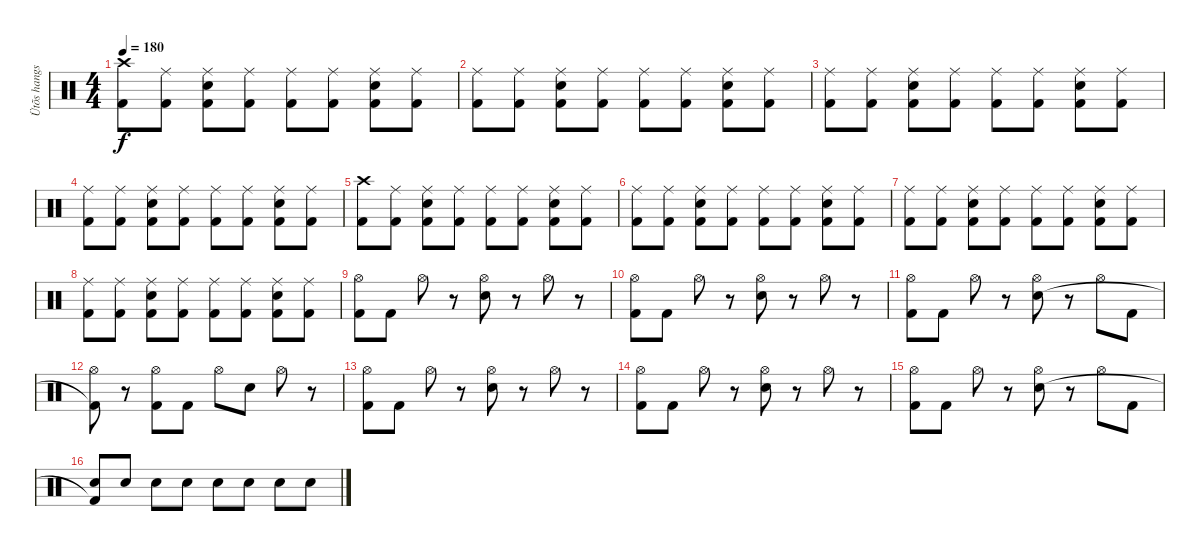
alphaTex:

\track ("Ütõs hangszer" "Ütõs hangs") {instrument percussion}
\staff {score}
\articulation defaults
\ts (4 4)
\tempo 180
\clef neutral
\ks c
("Crash high (hit)" "Kick (hit) 2").8{dy f} ("Ride (middle)" "Kick (hit) 2").8 ("Ride (middle)" "Electric Snare (hit)" "Kick (hit) 2").8 ("Ride (middle)" "Kick (hit) 2").8 ("Ride (middle)" "Kick (hit) 2").8 ("Ride (middle)" "Kick (hit) 2").8 ("Ride (middle)" "Electric Snare (hit)" "Kick (hit) 2").8 ("Ride (middle)" "Kick (hit) 2").8 |
("Ride (middle)" "Kick (hit) 2").8 ("Ride (middle)" "Kick (hit) 2").8 ("Ride (middle)" "Electric Snare (hit)" "Kick (hit) 2").8 ("Ride (middle)" "Kick (hit) 2").8 ("Ride (middle)" "Kick (hit) 2").8 ("Ride (middle)" "Kick (hit) 2").8 ("Ride (middle)" "Electric Snare (hit)" "Kick (hit) 2").8 ("Ride (middle)" "Kick (hit) 2").8 |
("Ride (middle)" "Kick (hit) 2").8 ("Ride (middle)" "Kick (hit) 2").8 ("Ride (middle)" "Electric Snare (hit)" "Kick (hit) 2").8 ("Ride (middle)" "Kick (hit) 2").8 ("Ride (middle)" "Kick (hit) 2").8 ("Ride (middle)" "Kick (hit) 2").8 ("Ride (middle)" "Electric Snare (hit)" "Kick (hit) 2").8 ("Ride (middle)" "Kick (hit) 2").8 |
("Ride (middle)" "Kick (hit) 2").8 ("Ride (middle)" "Kick (hit) 2").8 ("Ride (middle)" "Electric Snare (hit)" "Kick (hit) 2").8 ("Ride (middle)" "Kick (hit) 2").8 ("Ride (middle)" "Kick (hit) 2").8 ("Ride (middle)" "Kick (hit) 2").8 ("Ride (middle)" "Electric Snare (hit)" "Kick (hit) 2").8 ("Ride (middle)" "Kick (hit) 2").8 |
("Crash high (hit)" "Kick (hit) 2").8 ("Ride (middle)" "Kick (hit) 2").8 ("Ride (middle)" "Electric Snare (hit)" "Kick (hit) 2").8 ("Ride (middle)" "Kick (hit) 2").8 ("Ride (middle)" "Kick (hit) 2").8 ("Ride (middle)" "Kick (hit) 2").8 ("Ride (middle)" "Electric Snare (hit)" "Kick (hit) 2").8 ("Ride (middle)" "Kick (hit) 2").8 |
("Ride (middle)" "Kick (hit) 2").8 ("Ride (middle)" "Kick (hit) 2").8 ("Ride (middle)" "Electric Snare (hit)" "Kick (hit) 2").8 ("Ride (middle)" "Kick (hit) 2").8 ("Ride (middle)" "Kick (hit) 2").8 ("Ride (middle)" "Kick (hit) 2").8 ("Ride (middle)" "Electric Snare (hit)" "Kick (hit) 2").8 ("Ride (middle)" "Kick (hit) 2").8 |
("Ride (middle)" "Kick (hit) 2").8 ("Ride (middle)" "Kick (hit) 2").8 ("Ride (middle)" "Electric Snare (hit)" "Kick (hit) 2").8 ("Ride (middle)" "Kick (hit) 2").8 ("Ride (middle)" "Kick (hit) 2").8 ("Ride (middle)" "Kick (hit) 2").8 ("Ride (middle)" "Electric Snare (hit)" "Kick (hit) 2").8 ("Ride (middle)" "Kick (hit) 2").8 |
("Ride (middle)" "Kick (hit) 2").8 ("Ride (middle)" "Kick (hit) 2").8 ("Ride (middle)" "Electric Snare (hit)" "Kick (hit) 2").8 ("Ride (middle)" "Kick (hit) 2").8 ("Ride (middle)" "Kick (hit) 2").8 ("Ride (middle)" "Kick (hit) 2").8 ("Ride (middle)" "Electric Snare (hit)" "Kick (hit) 2").8 ("Ride (middle)" "Kick (hit) 2").8 |
("Hi-Hat (open)" "Kick (hit) 2").8 "Kick (hit) 2".8 "Hi-Hat (open)".8 r.8 ("Hi-Hat (open)" "Electric Snare (hit)").8 r.8 "Hi-Hat (open)".8 r.8 |
("Hi-Hat (open)" "Kick (hit) 2").8 "Kick (hit) 2".8 "Hi-Hat (open)".8 r.8 ("Hi-Hat (open)" "Electric Snare (hit)").8 r.8 "Hi-Hat (open)".8 r.8 |
("Hi-Hat (open)" "Kick (hit) 2").8 "Kick (hit) 2".8 "Hi-Hat (open)".8 r.8 ("Hi-Hat (open)" "Electric Snare (hit)").8 r.8 "Hi-Hat (open)".8 "Kick (hit) 2".8 |
("Hi-Hat (open)" "Kick (hit) 2"{t}).8 r.8 ("Hi-Hat (open)" "Kick (hit) 2").8 "Kick (hit) 2".8 "Hi-Hat (open)".8 "Electric Snare (hit)".8 "Hi-Hat (open)".8 r.8 |
("Hi-Hat (open)" "Kick (hit) 2").8 "Kick (hit) 2".8 "Hi-Hat (open)".8 r.8 ("Hi-Hat (open)" "Electric Snare (hit)").8 r.8 "Hi-Hat (open)".8 r.8 |
("Hi-Hat (open)" "Kick (hit) 2").8 "Kick (hit) 2".8 "Hi-Hat (open)".8 r.8 ("Hi-Hat (open)" "Electric Snare (hit)").8 r.8 "Hi-Hat (open)".8 r.8 |
("Hi-Hat (open)" "Kick (hit) 2").8 "Kick (hit) 2".8 "Hi-Hat (open)".8 r.8 ("Hi-Hat (open)" "Electric Snare (hit)").8 r.8 "Hi-Hat (open)".8 "Kick (hit) 2".8 |
("Electric Snare (hit)" "Kick (hit) 2"{t}).8 "Electric Snare (hit)".8 "Electric Snare (hit)".8 "Electric Snare (hit)".8 "Electric Snare (hit)".8 "Electric Snare (hit)".8 "Electric Snare (hit)".8 "Electric Snare (hit)".8
